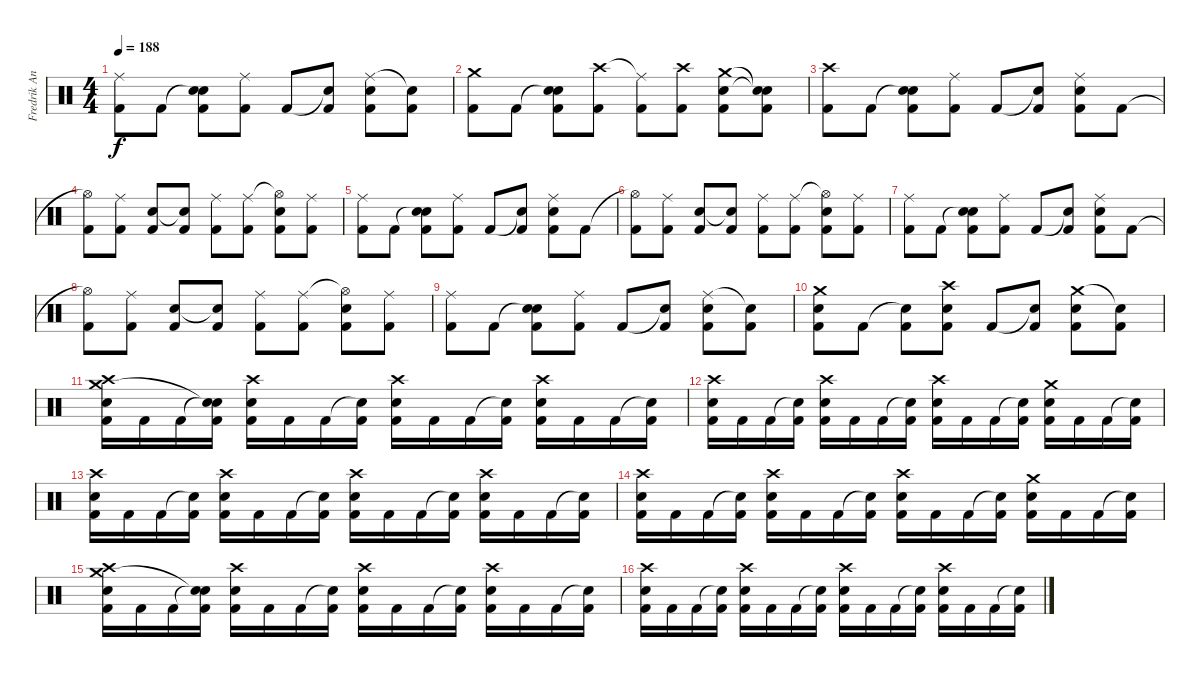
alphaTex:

\track ("Fredrik Andersson" "Fredrik An") {instrument percussion}
\staff {score}
\articulation defaults
\ts (4 4)
\tempo 188
\clef neutral
\ks c
("Ride (middle)" "Kick (hit) 2").8{dy f} "Kick (hit) 2".8 ("Snare (hit)"{t} "Snare (hit) 2" "Kick (hit) 2").8 ("Ride (middle)" "Kick (hit) 2").8 "Kick (hit) 2".8 ("Snare (hit)"{t} "Kick (hit) 2").8 ("Ride (middle)" "Snare (hit) 2" "Kick (hit) 2").8 ("Snare (hit)"{t} "Kick (hit) 2").8 |
("Crash medium (hit)" "Kick (hit) 2").8 "Kick (hit) 2".8 ("Snare (hit)"{t} "Snare (hit) 2" "Kick (hit) 2").8 ("Crash high (hit)" "Kick (hit) 2").8 ("Ride (middle)"{t} "Kick (hit) 2").8 ("Crash high (hit)" "Kick (hit) 2").8 ("Crash medium (hit)" "Snare (hit) 2" "Kick (hit) 2").8 ("Snare (hit)"{t} "Snare (hit)"{t} "Kick (hit) 2").8 |
("Crash high (hit)" "Kick (hit) 2").8 "Kick (hit) 2".8 ("Snare (hit)"{t} "Snare (hit) 2" "Kick (hit) 2").8 ("Ride (middle)" "Kick (hit) 2").8 "Kick (hit) 2".8 ("Snare (hit)"{t} "Kick (hit) 2").8 ("Ride (middle)" "Snare (hit) 2" "Kick (hit) 2").8 "Kick (hit) 2".8 |
("Hi-Hat (open)"{t} "Kick (hit) 2").8 ("Ride (middle)" "Kick (hit) 2").8 ("Snare (hit) 2" "Kick (hit) 2").8 ("Snare (hit)"{t} "Kick (hit) 2").8 ("Ride (middle)" "Kick (hit) 2").8 ("Ride (middle)" "Kick (hit) 2").8 ("Hi-Hat (open)"{t} "Snare (hit) 2" "Kick (hit) 2").8 ("Ride (middle)" "Kick (hit) 2").8 |
("Ride (middle)" "Kick (hit) 2").8 "Kick (hit) 2".8 ("Snare (hit)"{t} "Snare (hit) 2" "Kick (hit) 2").8 ("Ride (middle)" "Kick (hit) 2").8 "Kick (hit) 2".8 ("Snare (hit)"{t} "Kick (hit) 2").8 ("Ride (middle)" "Snare (hit) 2" "Kick (hit) 2").8 "Kick (hit) 2".8 |
("Hi-Hat (open)"{t} "Kick (hit) 2").8 ("Ride (middle)" "Kick (hit) 2").8 ("Snare (hit) 2" "Kick (hit) 2").8 ("Snare (hit)"{t} "Kick (hit) 2").8 ("Ride (middle)" "Kick (hit) 2").8 ("Ride (middle)" "Kick (hit) 2").8 ("Hi-Hat (open)"{t} "Snare (hit) 2" "Kick (hit) 2").8 ("Ride (middle)" "Kick (hit) 2").8 |
("Ride (middle)" "Kick (hit) 2").8 "Kick (hit) 2".8 ("Snare (hit)"{t} "Snare (hit) 2" "Kick (hit) 2").8 ("Ride (middle)" "Kick (hit) 2").8 "Kick (hit) 2".8 ("Snare (hit)"{t} "Kick (hit) 2").8 ("Ride (middle)" "Snare (hit) 2" "Kick (hit) 2").8 "Kick (hit) 2".8 |
("Hi-Hat (open)"{t} "Kick (hit) 2").8 ("Ride (middle)" "Kick (hit) 2").8 ("Snare (hit) 2" "Kick (hit) 2").8 ("Snare (hit)"{t} "Kick (hit) 2").8 ("Ride (middle)" "Kick (hit) 2").8 ("Ride (middle)" "Kick (hit) 2").8 ("Hi-Hat (open)"{t} "Snare (hit) 2" "Kick (hit) 2").8 ("Ride (middle)" "Kick (hit) 2").8 |
("Ride (middle)" "Kick (hit) 2").8 "Kick (hit) 2".8 ("Snare (hit)"{t} "Snare (hit) 2" "Kick (hit) 2").8 ("Ride (middle)" "Kick (hit) 2").8 "Kick (hit) 2".8 ("Snare (hit)"{t} "Kick (hit) 2").8 ("Ride (middle)" "Snare (hit) 2" "Kick (hit) 2").8 ("Snare (hit)"{t} "Kick (hit) 2").8 |
("Crash medium (hit)" "Snare (hit) 2" "Kick (hit) 2").8 "Kick (hit) 2".8 ("Snare (hit)"{t} "Kick (hit) 2").8 ("Crash high (hit)" "Snare (hit) 2" "Kick (hit) 2").8 "Kick (hit) 2".8 ("Snare (hit)"{t} "Kick (hit) 2").8 ("Crash medium (hit)" "Snare (hit) 2" "Kick (hit) 2").8 ("Snare (hit)"{t} "Kick (hit) 2").8 |
("Crash high (hit)" "Crash medium (hit)" "Snare (hit) 2" "Kick (hit) 2").16 "Kick (hit) 2".16 "Kick (hit) 2".16 ("Snare (hit)"{t} "Snare (hit)"{t} "Kick (hit) 2").16 ("Crash high (hit)" "Snare (hit) 2" "Kick (hit) 2").16 "Kick (hit) 2".16 "Kick (hit) 2".16 ("Snare (hit)"{t} "Kick (hit) 2").16 ("Crash high (hit)" "Snare (hit) 2" "Kick (hit) 2").16 "Kick (hit) 2".16 "Kick (hit) 2".16 ("Snare (hit)"{t} "Kick (hit) 2").16 ("Crash high (hit)" "Snare (hit) 2" "Kick (hit) 2").16 "Kick (hit) 2".16 "Kick (hit) 2".16 ("Snare (hit)"{t} "Kick (hit) 2").16 |
("Crash high (hit)" "Snare (hit) 2" "Kick (hit) 2").16 "Kick (hit) 2".16 "Kick (hit) 2".16 ("Snare (hit)"{t} "Kick (hit) 2").16 ("Crash high (hit)" "Snare (hit) 2" "Kick (hit) 2").16 "Kick (hit) 2".16 "Kick (hit) 2".16 ("Snare (hit)"{t} "Kick (hit) 2").16 ("Crash high (hit)" "Snare (hit) 2" "Kick (hit) 2").16 "Kick (hit) 2".16 "Kick (hit) 2".16 ("Snare (hit)"{t} "Kick (hit) 2").16 ("Crash medium (hit)" "Snare (hit) 2" "Kick (hit) 2").16 "Kick (hit) 2".16 "Kick (hit) 2".16 ("Snare (hit)"{t} "Kick (hit) 2").16 |
("Crash high (hit)" "Snare (hit) 2" "Kick (hit) 2").16 "Kick (hit) 2".16 "Kick (hit) 2".16 ("Snare (hit)"{t} "Kick (hit) 2").16 ("Crash high (hit)" "Snare (hit) 2" "Kick (hit) 2").16 "Kick (hit) 2".16 "Kick (hit) 2".16 ("Snare (hit)"{t} "Kick (hit) 2").16 ("Crash high (hit)" "Snare (hit) 2" "Kick (hit) 2").16 "Kick (hit) 2".16 "Kick (hit) 2".16 ("Snare (hit)"{t} "Kick (hit) 2").16 ("Crash high (hit)" "Snare (hit) 2" "Kick (hit) 2").16 "Kick (hit) 2".16 "Kick (hit) 2".16 ("Snare (hit)"{t} "Kick (hit) 2").16 |
("Crash high (hit)" "Snare (hit) 2" "Kick (hit) 2").16 "Kick (hit) 2".16 "Kick (hit) 2".16 ("Snare (hit)"{t} "Kick (hit) 2").16 ("Crash high (hit)" "Snare (hit) 2" "Kick (hit) 2").16 "Kick (hit) 2".16 "Kick (hit) 2".16 ("Snare (hit)"{t} "Kick (hit) 2").16 ("Crash high (hit)" "Snare (hit) 2" "Kick (hit) 2").16 "Kick (hit) 2".16 "Kick (hit) 2".16 ("Snare (hit)"{t} "Kick (hit) 2").16 ("Crash medium (hit)" "Snare (hit) 2" "Kick (hit) 2").16 "Kick (hit) 2".16 "Kick (hit) 2".16 ("Snare (hit)"{t} "Kick (hit) 2").16 |
("Crash high (hit)" "Crash medium (hit)" "Snare (hit) 2" "Kick (hit) 2").16 "Kick (hit) 2".16 "Kick (hit) 2".16 ("Snare (hit)"{t} "Snare (hit)"{t} "Kick (hit) 2").16 ("Crash high (hit)" "Snare (hit) 2" "Kick (hit) 2").16 "Kick (hit) 2".16 "Kick (hit) 2".16 ("Snare (hit)"{t} "Kick (hit) 2").16 ("Crash high (hit)" "Snare (hit) 2" "Kick (hit) 2").16 "Kick (hit) 2".16 "Kick (hit) 2".16 ("Snare (hit)"{t} "Kick (hit) 2").16 ("Crash high (hit)" "Snare (hit) 2" "Kick (hit) 2").16 "Kick (hit) 2".16 "Kick (hit) 2".16 ("Snare (hit)"{t} "Kick (hit) 2").16 |
("Crash high (hit)" "Snare (hit) 2" "Kick (hit) 2").16 "Kick (hit) 2".16 "Kick (hit) 2".16 ("Snare (hit)"{t} "Kick (hit) 2").16 ("Crash high (hit)" "Snare (hit) 2" "Kick (hit) 2").16 "Kick (hit) 2".16 "Kick (hit) 2".16 ("Snare (hit)"{t} "Kick (hit) 2").16 ("Crash high (hit)" "Snare (hit) 2" "Kick (hit) 2").16 "Kick (hit) 2".16 "Kick (hit) 2".16 ("Snare (hit)"{t} "Kick (hit) 2").16 ("Crash high (hit)" "Snare (hit) 2" "Kick (hit) 2").16 "Kick (hit) 2".16 "Kick (hit) 2".16 ("Snare (hit)"{t} "Kick (hit) 2").16
